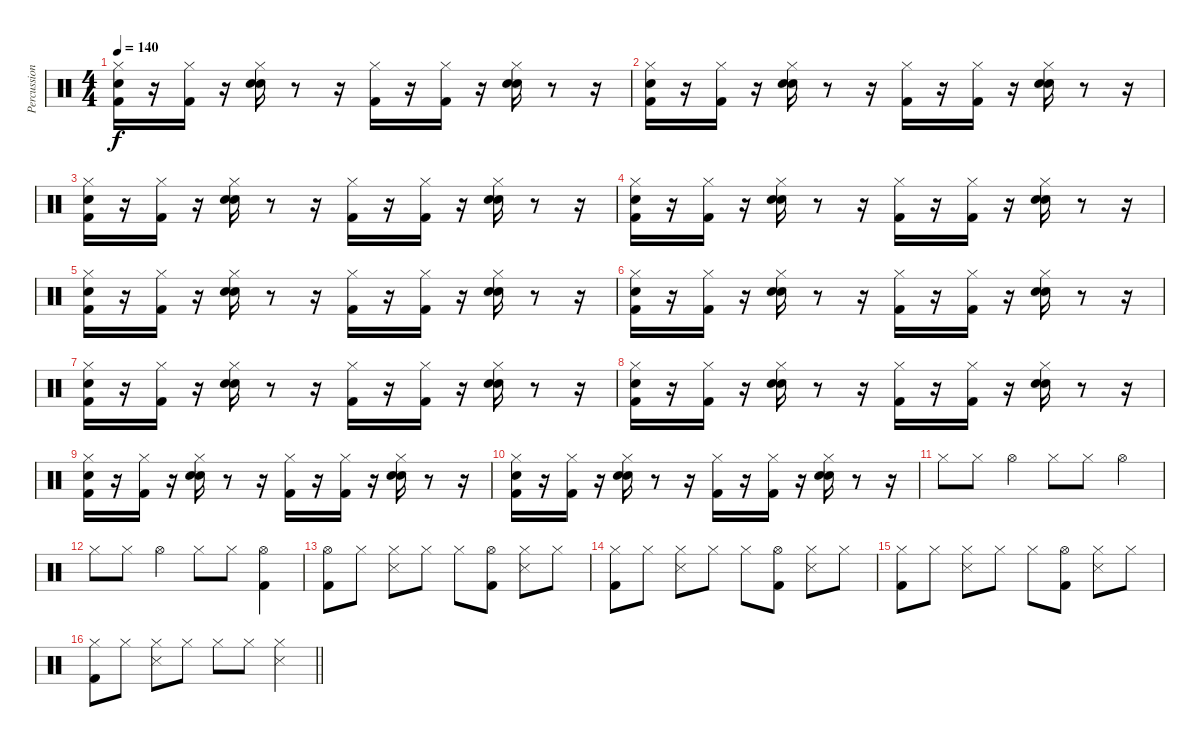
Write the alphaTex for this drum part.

\track ("Percussion" "Percussion") {instrument percussion}
\staff {score}
\articulation defaults
\ts (4 4)
\tempo 140
\clef neutral
\ks c
("Snare (hit)" "Kick (hit) 2" "Hi-Hat (closed)").16{dy f} r.16 ("Kick (hit) 2" "Hi-Hat (closed)").16 r.16 ("Hand Clap (hit)" "Hi-Hat (closed)" "Snare (hit) 2").16 r.8 r.16 ("Hi-Hat (closed)" "Kick (hit) 2").16 r.16 ("Hi-Hat (closed)" "Kick (hit) 2").16 r.16 ("Snare (hit) 2" "Hand Clap (hit)" "Hi-Hat (closed)").16 r.8 r.16 |
("Snare (hit)" "Kick (hit) 2" "Hi-Hat (closed)").16 r.16 ("Kick (hit) 2" "Hi-Hat (closed)").16 r.16 ("Hand Clap (hit)" "Hi-Hat (closed)" "Snare (hit) 2").16 r.8 r.16 ("Hi-Hat (closed)" "Kick (hit) 2").16 r.16 ("Hi-Hat (closed)" "Kick (hit) 2").16 r.16 ("Snare (hit) 2" "Hand Clap (hit)" "Hi-Hat (closed)").16 r.8 r.16 |
("Snare (hit)" "Kick (hit) 2" "Hi-Hat (closed)").16 r.16 ("Kick (hit) 2" "Hi-Hat (closed)").16 r.16 ("Hand Clap (hit)" "Hi-Hat (closed)" "Snare (hit) 2").16 r.8 r.16 ("Hi-Hat (closed)" "Kick (hit) 2").16 r.16 ("Hi-Hat (closed)" "Kick (hit) 2").16 r.16 ("Snare (hit) 2" "Hand Clap (hit)" "Hi-Hat (closed)").16 r.8 r.16 |
("Snare (hit)" "Kick (hit) 2" "Hi-Hat (closed)").16 r.16 ("Kick (hit) 2" "Hi-Hat (closed)").16 r.16 ("Hand Clap (hit)" "Hi-Hat (closed)" "Snare (hit) 2").16 r.8 r.16 ("Hi-Hat (closed)" "Kick (hit) 2").16 r.16 ("Hi-Hat (closed)" "Kick (hit) 2").16 r.16 ("Snare (hit) 2" "Hand Clap (hit)" "Hi-Hat (closed)").16 r.8 r.16 |
("Snare (hit)" "Kick (hit) 2" "Hi-Hat (closed)").16 r.16 ("Kick (hit) 2" "Hi-Hat (closed)").16 r.16 ("Hand Clap (hit)" "Hi-Hat (closed)" "Snare (hit) 2").16 r.8 r.16 ("Hi-Hat (closed)" "Kick (hit) 2").16 r.16 ("Hi-Hat (closed)" "Kick (hit) 2").16 r.16 ("Snare (hit) 2" "Hand Clap (hit)" "Hi-Hat (closed)").16 r.8 r.16 |
("Snare (hit)" "Kick (hit) 2" "Hi-Hat (closed)").16 r.16 ("Kick (hit) 2" "Hi-Hat (closed)").16 r.16 ("Hand Clap (hit)" "Hi-Hat (closed)" "Snare (hit) 2").16 r.8 r.16 ("Hi-Hat (closed)" "Kick (hit) 2").16 r.16 ("Hi-Hat (closed)" "Kick (hit) 2").16 r.16 ("Snare (hit) 2" "Hand Clap (hit)" "Hi-Hat (closed)").16 r.8 r.16 |
("Snare (hit)" "Kick (hit) 2" "Hi-Hat (closed)").16 r.16 ("Kick (hit) 2" "Hi-Hat (closed)").16 r.16 ("Hand Clap (hit)" "Hi-Hat (closed)" "Snare (hit) 2").16 r.8 r.16 ("Hi-Hat (closed)" "Kick (hit) 2").16 r.16 ("Hi-Hat (closed)" "Kick (hit) 2").16 r.16 ("Snare (hit) 2" "Hand Clap (hit)" "Hi-Hat (closed)").16 r.8 r.16 |
("Snare (hit)" "Kick (hit) 2" "Hi-Hat (closed)").16 r.16 ("Kick (hit) 2" "Hi-Hat (closed)").16 r.16 ("Hand Clap (hit)" "Hi-Hat (closed)" "Snare (hit) 2").16 r.8 r.16 ("Hi-Hat (closed)" "Kick (hit) 2").16 r.16 ("Hi-Hat (closed)" "Kick (hit) 2").16 r.16 ("Snare (hit) 2" "Hand Clap (hit)" "Hi-Hat (closed)").16 r.8 r.16 |
("Snare (hit)" "Kick (hit) 2" "Hi-Hat (closed)").16 r.16 ("Kick (hit) 2" "Hi-Hat (closed)").16 r.16 ("Hand Clap (hit)" "Hi-Hat (closed)" "Snare (hit) 2").16 r.8 r.16 ("Hi-Hat (closed)" "Kick (hit) 2").16 r.16 ("Hi-Hat (closed)" "Kick (hit) 2").16 r.16 ("Snare (hit) 2" "Hand Clap (hit)" "Hi-Hat (closed)").16 r.8 r.16 |
("Snare (hit)" "Kick (hit) 2" "Hi-Hat (closed)").16 r.16 ("Kick (hit) 2" "Hi-Hat (closed)").16 r.16 ("Hand Clap (hit)" "Hi-Hat (closed)" "Snare (hit) 2").16 r.8 r.16 ("Hi-Hat (closed)" "Kick (hit) 2").16 r.16 ("Hi-Hat (closed)" "Kick (hit) 2").16 r.16 ("Snare (hit) 2" "Hand Clap (hit)" "Hi-Hat (closed)").16 r.8 r.16 |
"Hi-Hat (closed)".8 "Hi-Hat (closed)".8 "Hi-Hat (open)".4 "Hi-Hat (closed)".8 "Hi-Hat (closed)".8 "Hi-Hat (open)".4 |
"Hi-Hat (closed)".8 "Hi-Hat (closed)".8 "Hi-Hat (open)".4 "Hi-Hat (closed)".8 "Hi-Hat (closed)".8 ("Hi-Hat (open)" "Kick (hit) 2").4 |
("Hi-Hat (open)" "Kick (hit) 2").8 "Hi-Hat (closed)".8 ("Hi-Hat (closed)" "Snare (side stick) 3").8 "Hi-Hat (closed)".8 "Hi-Hat (closed)".8 ("Hi-Hat (open)" "Kick (hit) 2").8 ("Hi-Hat (closed)" "Snare (side stick) 3").8 "Hi-Hat (closed)".8 |
("Hi-Hat (closed)" "Kick (hit) 2").8 "Hi-Hat (closed)".8 ("Hi-Hat (closed)" "Snare (side stick) 3").8 "Hi-Hat (closed)".8 "Hi-Hat (closed)".8 ("Hi-Hat (open)" "Kick (hit) 2").8 ("Hi-Hat (closed)" "Snare (side stick) 3").8 "Hi-Hat (closed)".8 |
("Hi-Hat (closed)" "Kick (hit) 2").8 "Hi-Hat (closed)".8 ("Hi-Hat (closed)" "Snare (side stick) 3").8 "Hi-Hat (closed)".8 "Hi-Hat (closed)".8 ("Hi-Hat (open)" "Kick (hit) 2").8 ("Hi-Hat (closed)" "Snare (side stick) 3").8 "Hi-Hat (closed)".8 |
\barLineRight lightlight
("Hi-Hat (closed)" "Kick (hit) 2").8 "Hi-Hat (closed)".8 ("Hi-Hat (closed)" "Snare (side stick) 3").8 "Hi-Hat (closed)".8 "Hi-Hat (closed)".8 "Hi-Hat (closed)".8 ("Hi-Hat (closed)" "Snare (side stick) 3").4
